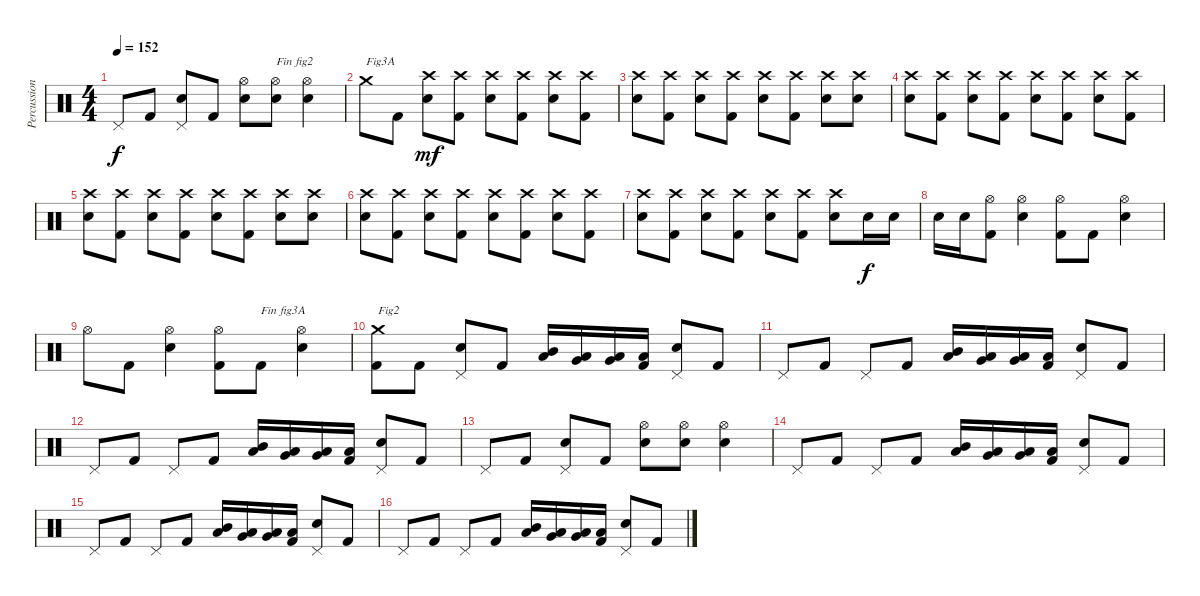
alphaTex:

\track ("Percussions" "Percussion") {instrument percussion}
\staff {score}
\articulation defaults
\ts (4 4)
\tempo 152
\clef neutral
\ks c "Pedal Hi-Hat (hit)".8{dy f} "Kick (hit) 2".8
("Electric Snare (hit)" "Pedal Hi-Hat (hit)").8 "Kick (hit) 2".8 ("Electric Snare (hit)" "Hi-Hat (open)").8 ("Electric Snare (hit)" "Hi-Hat (open)").8{txt "Fin fig2"} ("Electric Snare (hit)" "Hi-Hat (open)").4 |
"Crash medium (hit)".8{txt "Fig3A"} "Kick (hit) 2".8 ("Electric Snare (hit)" "Crash high (hit)").8{dy mf} ("Kick (hit) 2" "Crash high (hit)").8 ("Electric Snare (hit)" "Crash high (hit)").8 ("Kick (hit) 2" "Crash high (hit)").8 ("Electric Snare (hit)" "Crash high (hit)").8 ("Kick (hit) 2" "Crash high (hit)").8 |
("Electric Snare (hit)" "Crash high (hit)").8 ("Kick (hit) 2" "Crash high (hit)").8 ("Electric Snare (hit)" "Crash high (hit)").8 ("Kick (hit) 2" "Crash high (hit)").8 ("Electric Snare (hit)" "Crash high (hit)").8 ("Kick (hit) 2" "Crash high (hit)").8 ("Electric Snare (hit)" "Crash high (hit)").8 ("Electric Snare (hit)" "Crash high (hit)").8 |
("Electric Snare (hit)" "Crash high (hit)").8 ("Kick (hit) 2" "Crash high (hit)").8 ("Electric Snare (hit)" "Crash high (hit)").8 ("Kick (hit) 2" "Crash high (hit)").8 ("Electric Snare (hit)" "Crash high (hit)").8 ("Kick (hit) 2" "Crash high (hit)").8 ("Electric Snare (hit)" "Crash high (hit)").8 ("Kick (hit) 2" "Crash high (hit)").8 |
("Electric Snare (hit)" "Crash high (hit)").8 ("Kick (hit) 2" "Crash high (hit)").8 ("Electric Snare (hit)" "Crash high (hit)").8 ("Kick (hit) 2" "Crash high (hit)").8 ("Electric Snare (hit)" "Crash high (hit)").8 ("Kick (hit) 2" "Crash high (hit)").8 ("Electric Snare (hit)" "Crash high (hit)").8 ("Electric Snare (hit)" "Crash high (hit)").8 |
("Electric Snare (hit)" "Crash high (hit)").8 ("Kick (hit) 2" "Crash high (hit)").8 ("Electric Snare (hit)" "Crash high (hit)").8 ("Kick (hit) 2" "Crash high (hit)").8 ("Electric Snare (hit)" "Crash high (hit)").8 ("Kick (hit) 2" "Crash high (hit)").8 ("Electric Snare (hit)" "Crash high (hit)").8 ("Kick (hit) 2" "Crash high (hit)").8 |
("Electric Snare (hit)" "Crash high (hit)").8 ("Kick (hit) 2" "Crash high (hit)").8 ("Electric Snare (hit)" "Crash high (hit)").8 ("Kick (hit) 2" "Crash high (hit)").8 ("Electric Snare (hit)" "Crash high (hit)").8 ("Kick (hit) 2" "Crash high (hit)").8 ("Electric Snare (hit)" "Crash high (hit)").8 "Electric Snare (hit)".16{dy f} "Electric Snare (hit)".16 |
"Electric Snare (hit)".16 "Electric Snare (hit)".16 ("Kick (hit) 2" "Hi-Hat (open)").8 ("Electric Snare (hit)" "Hi-Hat (open)").4 ("Kick (hit) 2" "Hi-Hat (open)").8 "Kick (hit) 2".8 ("Electric Snare (hit)" "Hi-Hat (open)").4 |
"Hi-Hat (open)".8 "Kick (hit) 2".8 ("Electric Snare (hit)" "Hi-Hat (open)").4 ("Kick (hit) 2" "Hi-Hat (open)").8 "Kick (hit) 2".8{txt "Fin fig3A"} ("Electric Snare (hit)" "Hi-Hat (open)").4 |
("Kick (hit) 2" "Crash medium (hit)").8{txt "Fig2"} "Kick (hit) 2".8 ("Electric Snare (hit)" "Pedal Hi-Hat (hit)").8 "Kick (hit) 2".8 ("Low Tom (hit)" "Mid Tom (hit)").16 ("Low Tom (hit)" "Very Low Tom (hit)").16 ("Low Floor Tom (hit)" "Very Low Tom (hit)").16 ("Kick (hit) 2" "Low Floor Tom (hit)").16 ("Electric Snare (hit)" "Pedal Hi-Hat (hit)").8 "Kick (hit) 2".8 |
"Pedal Hi-Hat (hit)".8 "Kick (hit) 2".8 "Pedal Hi-Hat (hit)".8 "Kick (hit) 2".8 ("Low Tom (hit)" "Mid Tom (hit)").16 ("Low Tom (hit)" "Very Low Tom (hit)").16 ("Low Floor Tom (hit)" "Very Low Tom (hit)").16 ("Kick (hit) 2" "Low Floor Tom (hit)").16 ("Electric Snare (hit)" "Pedal Hi-Hat (hit)").8 "Kick (hit) 2".8 |
"Pedal Hi-Hat (hit)".8 "Kick (hit) 2".8 "Pedal Hi-Hat (hit)".8 "Kick (hit) 2".8 ("Low Tom (hit)" "Mid Tom (hit)").16 ("Low Tom (hit)" "Very Low Tom (hit)").16 ("Low Floor Tom (hit)" "Very Low Tom (hit)").16 ("Kick (hit) 2" "Low Floor Tom (hit)").16 ("Electric Snare (hit)" "Pedal Hi-Hat (hit)").8 "Kick (hit) 2".8 |
"Pedal Hi-Hat (hit)".8 "Kick (hit) 2".8 ("Electric Snare (hit)" "Pedal Hi-Hat (hit)").8 "Kick (hit) 2".8 ("Electric Snare (hit)" "Hi-Hat (open)").8 ("Electric Snare (hit)" "Hi-Hat (open)").8 ("Electric Snare (hit)" "Hi-Hat (open)").4 |
"Pedal Hi-Hat (hit)".8 "Kick (hit) 2".8 "Pedal Hi-Hat (hit)".8 "Kick (hit) 2".8 ("Low Tom (hit)" "Mid Tom (hit)").16 ("Low Tom (hit)" "Very Low Tom (hit)").16 ("Low Floor Tom (hit)" "Very Low Tom (hit)").16 ("Kick (hit) 2" "Low Floor Tom (hit)").16 ("Electric Snare (hit)" "Pedal Hi-Hat (hit)").8 "Kick (hit) 2".8 |
"Pedal Hi-Hat (hit)".8 "Kick (hit) 2".8 "Pedal Hi-Hat (hit)".8 "Kick (hit) 2".8 ("Low Tom (hit)" "Mid Tom (hit)").16 ("Low Tom (hit)" "Very Low Tom (hit)").16 ("Low Floor Tom (hit)" "Very Low Tom (hit)").16 ("Kick (hit) 2" "Low Floor Tom (hit)").16 ("Electric Snare (hit)" "Pedal Hi-Hat (hit)").8 "Kick (hit) 2".8 |
"Pedal Hi-Hat (hit)".8 "Kick (hit) 2".8 "Pedal Hi-Hat (hit)".8 "Kick (hit) 2".8 ("Low Tom (hit)" "Mid Tom (hit)").16 ("Low Tom (hit)" "Very Low Tom (hit)").16 ("Low Floor Tom (hit)" "Very Low Tom (hit)").16 ("Kick (hit) 2" "Low Floor Tom (hit)").16 ("Electric Snare (hit)" "Pedal Hi-Hat (hit)").8 "Kick (hit) 2".8
